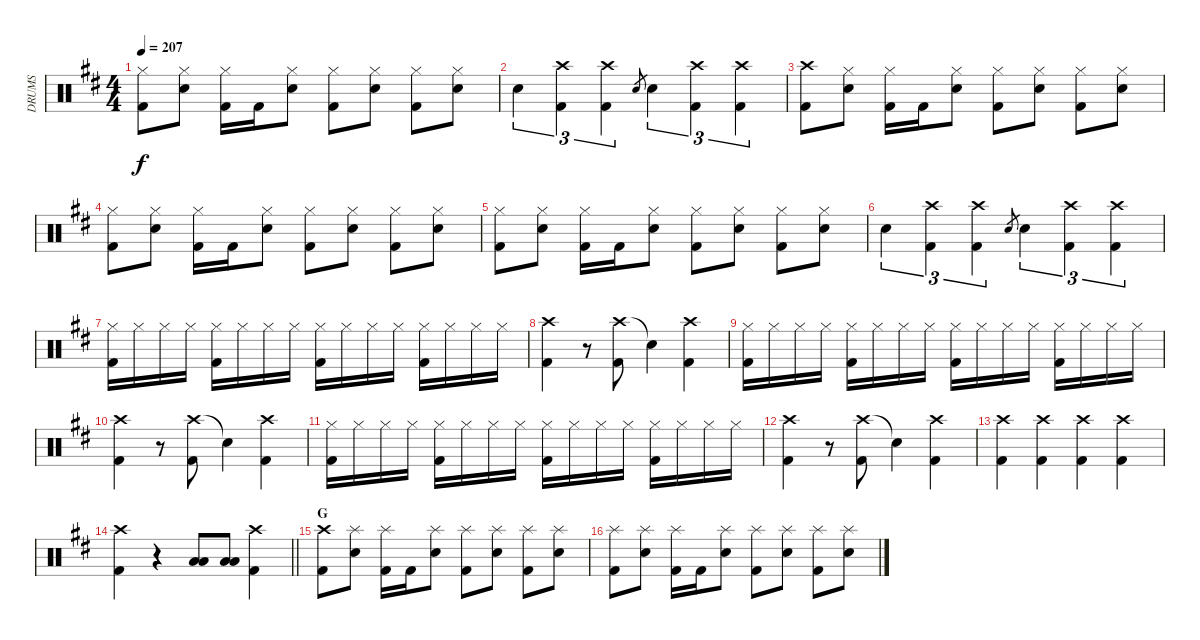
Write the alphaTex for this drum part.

\track ("DRUMS" "DRUMS") {instrument percussion}
\staff {score}
\articulation defaults
\ts (4 4)
\tempo 207
\clef neutral
\ks d
("Hi-Hat (closed)" "Kick (hit) 2").8{dy f} ("Hi-Hat (closed)" "Snare (hit) 2").8 ("Hi-Hat (closed)" "Kick (hit) 2").16 "Kick (hit) 2".16 ("Hi-Hat (closed)" "Snare (hit) 2").8 ("Hi-Hat (closed)" "Kick (hit) 2").8 ("Hi-Hat (closed)" "Snare (hit) 2").8 ("Hi-Hat (closed)" "Kick (hit) 2").8 ("Hi-Hat (closed)" "Snare (hit) 2").8 |
"Snare (hit) 2".4{tu (3 2)} ("Crash high (hit)" "Kick (hit) 2").4{tu (3 2)} ("Crash high (hit)" "Kick (hit) 2").4{tu (3 2)} "Snare (hit) 2".8{gr} "Snare (hit) 2".4{tu (3 2)} ("Crash high (hit)" "Kick (hit) 2").4{tu (3 2)} ("Crash high (hit)" "Kick (hit) 2").4{tu (3 2)} |
("Crash high (hit)" "Kick (hit) 2").8 ("Hi-Hat (closed)" "Snare (hit) 2").8 ("Hi-Hat (closed)" "Kick (hit) 2").16 "Kick (hit) 2".16 ("Hi-Hat (closed)" "Snare (hit) 2").8 ("Hi-Hat (closed)" "Kick (hit) 2").8 ("Hi-Hat (closed)" "Snare (hit) 2").8 ("Hi-Hat (closed)" "Kick (hit) 2").8 ("Hi-Hat (closed)" "Snare (hit) 2").8 |
("Hi-Hat (closed)" "Kick (hit) 2").8 ("Hi-Hat (closed)" "Snare (hit) 2").8 ("Hi-Hat (closed)" "Kick (hit) 2").16 "Kick (hit) 2".16 ("Hi-Hat (closed)" "Snare (hit) 2").8 ("Hi-Hat (closed)" "Kick (hit) 2").8 ("Hi-Hat (closed)" "Snare (hit) 2").8 ("Hi-Hat (closed)" "Kick (hit) 2").8 ("Hi-Hat (closed)" "Snare (hit) 2").8 |
("Hi-Hat (closed)" "Kick (hit) 2").8 ("Hi-Hat (closed)" "Snare (hit) 2").8 ("Hi-Hat (closed)" "Kick (hit) 2").16 "Kick (hit) 2".16 ("Hi-Hat (closed)" "Snare (hit) 2").8 ("Hi-Hat (closed)" "Kick (hit) 2").8 ("Hi-Hat (closed)" "Snare (hit) 2").8 ("Hi-Hat (closed)" "Kick (hit) 2").8 ("Hi-Hat (closed)" "Snare (hit) 2").8 |
"Snare (hit) 2".4{tu (3 2)} ("Crash high (hit)" "Kick (hit) 2").4{tu (3 2)} ("Crash high (hit)" "Kick (hit) 2").4{tu (3 2)} "Snare (hit) 2".8{gr} "Snare (hit) 2".4{tu (3 2)} ("Crash high (hit)" "Kick (hit) 2").4{tu (3 2)} ("Crash high (hit)" "Kick (hit) 2").4{tu (3 2)} |
("Hi-Hat (closed)" "Kick (hit) 2").16 "Hi-Hat (closed)".16 "Hi-Hat (closed)".16 "Hi-Hat (closed)".16 ("Hi-Hat (closed)" "Kick (hit) 2").16 "Hi-Hat (closed)".16 "Hi-Hat (closed)".16 "Hi-Hat (closed)".16 ("Hi-Hat (closed)" "Kick (hit) 2").16 "Hi-Hat (closed)".16 "Hi-Hat (closed)".16 "Hi-Hat (closed)".16 ("Hi-Hat (closed)" "Kick (hit) 2").16 "Hi-Hat (closed)".16 "Hi-Hat (closed)".16 "Hi-Hat (closed)".16 |
("Crash high (hit)" "Kick (hit) 2").4 r.8 ("Crash high (hit)" "Kick (hit) 2").8 "Snare (hit)"{t}.4 ("Crash high (hit)" "Kick (hit) 2").4 |
("Hi-Hat (closed)" "Kick (hit) 2").16 "Hi-Hat (closed)".16 "Hi-Hat (closed)".16 "Hi-Hat (closed)".16 ("Hi-Hat (closed)" "Kick (hit) 2").16 "Hi-Hat (closed)".16 "Hi-Hat (closed)".16 "Hi-Hat (closed)".16 ("Hi-Hat (closed)" "Kick (hit) 2").16 "Hi-Hat (closed)".16 "Hi-Hat (closed)".16 "Hi-Hat (closed)".16 ("Hi-Hat (closed)" "Kick (hit) 2").16 "Hi-Hat (closed)".16 "Hi-Hat (closed)".16 "Hi-Hat (closed)".16 |
("Crash high (hit)" "Kick (hit) 2").4 r.8 ("Crash high (hit)" "Kick (hit) 2").8 "Snare (hit)"{t}.4 ("Crash high (hit)" "Kick (hit) 2").4 |
("Hi-Hat (closed)" "Kick (hit) 2").16 "Hi-Hat (closed)".16 "Hi-Hat (closed)".16 "Hi-Hat (closed)".16 ("Hi-Hat (closed)" "Kick (hit) 2").16 "Hi-Hat (closed)".16 "Hi-Hat (closed)".16 "Hi-Hat (closed)".16 ("Hi-Hat (closed)" "Kick (hit) 2").16 "Hi-Hat (closed)".16 "Hi-Hat (closed)".16 "Hi-Hat (closed)".16 ("Hi-Hat (closed)" "Kick (hit) 2").16 "Hi-Hat (closed)".16 "Hi-Hat (closed)".16 "Hi-Hat (closed)".16 |
("Crash high (hit)" "Kick (hit) 2").4 r.8 ("Crash high (hit)" "Kick (hit) 2").8 "Snare (hit)"{t}.4 ("Crash high (hit)" "Kick (hit) 2").4 |
("Crash high (hit)" "Kick (hit) 2").4 ("Crash high (hit)" "Kick (hit) 2").4 ("Crash high (hit)" "Kick (hit) 2").4 ("Crash high (hit)" "Kick (hit) 2").4 |
\barLineRight lightlight
("Crash high (hit)" "Kick (hit) 2").4 r.4 ("Low Tom (hit)" "Low Floor Tom (hit)").8 ("Low Tom (hit)" "Low Floor Tom (hit)").8 ("Crash high (hit)" "Kick (hit) 2").4 |
\section ("" "G")
("Crash high (hit)" "Kick (hit) 2").8 ("Splash (hit)" "Snare (hit) 2").8 ("Splash (hit)" "Kick (hit) 2").16 "Kick (hit) 2".16 ("Splash (hit)" "Snare (hit) 2").8 ("Splash (hit)" "Kick (hit) 2").8 ("Splash (hit)" "Snare (hit) 2").8 ("Splash (hit)" "Kick (hit) 2").8 ("Splash (hit)" "Snare (hit) 2").8 |
("Splash (hit)" "Kick (hit) 2").8 ("Splash (hit)" "Snare (hit) 2").8 ("Splash (hit)" "Kick (hit) 2").16 "Kick (hit) 2".16 ("Splash (hit)" "Snare (hit) 2").8 ("Splash (hit)" "Kick (hit) 2").8 ("Splash (hit)" "Snare (hit) 2").8 ("Splash (hit)" "Kick (hit) 2").8 ("Splash (hit)" "Snare (hit) 2").8
